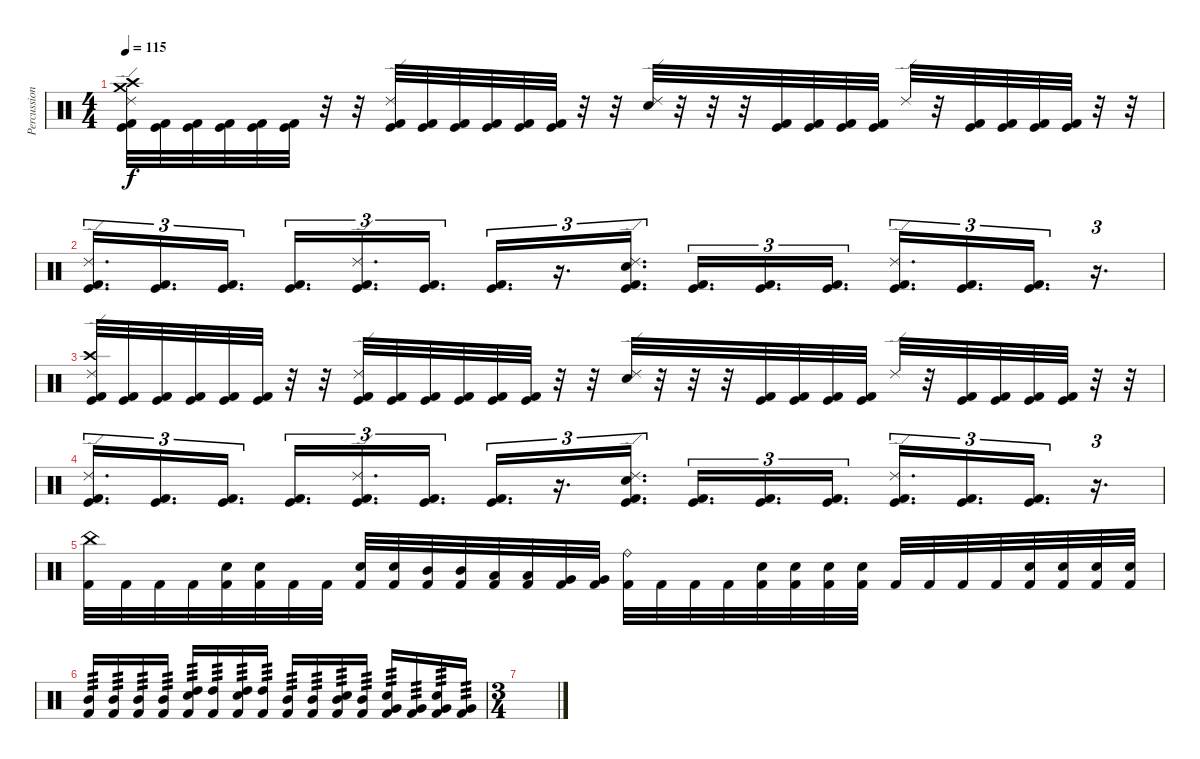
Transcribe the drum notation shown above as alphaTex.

\track ("Percussion" "Percussion") {instrument percussion}
\staff {score}
\articulation defaults
\ts (4 4)
\tempo 115
\clef neutral
\ks c
("Crash medium (hit)" "Ride (edge) 2" "Crash high (hit)" "Kick (hit)" "Kick (hit) 2").32{dy f} ("Kick (hit)" "Kick (hit) 2").32 ("Kick (hit)" "Kick (hit) 2").32 ("Kick (hit)" "Kick (hit) 2").32 ("Kick (hit)" "Kick (hit) 2").32 ("Kick (hit)" "Kick (hit) 2").32 r.32 r.32 ("Ride (edge) 2" "Kick (hit)" "Kick (hit) 2").32 ("Kick (hit)" "Kick (hit) 2").32 ("Kick (hit)" "Kick (hit) 2").32 ("Kick (hit)" "Kick (hit) 2").32 ("Kick (hit)" "Kick (hit) 2").32 ("Kick (hit)" "Kick (hit) 2").32 r.32 r.32 ("Ride (edge) 2" "Electric Snare (hit)").32 r.32 r.32 r.32 ("Kick (hit)" "Kick (hit) 2").32 ("Kick (hit)" "Kick (hit) 2").32 ("Kick (hit)" "Kick (hit) 2").32 ("Kick (hit)" "Kick (hit) 2").32 "Ride (edge) 2".32 r.32 ("Kick (hit)" "Kick (hit) 2").32 ("Kick (hit)" "Kick (hit) 2").32 ("Kick (hit)" "Kick (hit) 2").32 ("Kick (hit)" "Kick (hit) 2").32 r.32 r.32 |
("Ride (edge) 2" "Kick (hit)" "Kick (hit) 2").16{d tu (3 2)} ("Kick (hit)" "Kick (hit) 2").16{d tu (3 2)} ("Kick (hit)" "Kick (hit) 2").16{d tu (3 2)} ("Kick (hit)" "Kick (hit) 2").16{d tu (3 2)} ("Ride (edge) 2" "Kick (hit)" "Kick (hit) 2").16{d tu (3 2)} ("Kick (hit)" "Kick (hit) 2").16{d tu (3 2)} ("Kick (hit)" "Kick (hit) 2").16{d tu (3 2)} r.16{d tu (3 2)} ("Ride (edge) 2" "Electric Snare (hit)" "Kick (hit)" "Kick (hit) 2").16{d tu (3 2)} ("Kick (hit)" "Kick (hit) 2").16{d tu (3 2)} ("Kick (hit)" "Kick (hit) 2").16{d tu (3 2)} ("Kick (hit)" "Kick (hit) 2").16{d tu (3 2)} ("Ride (edge) 2" "Kick (hit)" "Kick (hit) 2").16{d tu (3 2)} ("Kick (hit)" "Kick (hit) 2").16{d tu (3 2)} ("Kick (hit)" "Kick (hit) 2").16{d tu (3 2)} r.16{d tu (3 2)} |
("Ride (edge) 2" "Crash high (hit)" "Kick (hit)" "Kick (hit) 2").32 ("Kick (hit)" "Kick (hit) 2").32 ("Kick (hit)" "Kick (hit) 2").32 ("Kick (hit)" "Kick (hit) 2").32 ("Kick (hit)" "Kick (hit) 2").32 ("Kick (hit)" "Kick (hit) 2").32 r.32 r.32 ("Ride (edge) 2" "Kick (hit)" "Kick (hit) 2").32 ("Kick (hit)" "Kick (hit) 2").32 ("Kick (hit)" "Kick (hit) 2").32 ("Kick (hit)" "Kick (hit) 2").32 ("Kick (hit)" "Kick (hit) 2").32 ("Kick (hit)" "Kick (hit) 2").32 r.32 r.32 ("Ride (edge) 2" "Electric Snare (hit)").32 r.32 r.32 r.32 ("Kick (hit)" "Kick (hit) 2").32 ("Kick (hit)" "Kick (hit) 2").32 ("Kick (hit)" "Kick (hit) 2").32 ("Kick (hit)" "Kick (hit) 2").32 "Ride (edge) 2".32 r.32 ("Kick (hit)" "Kick (hit) 2").32 ("Kick (hit)" "Kick (hit) 2").32 ("Kick (hit)" "Kick (hit) 2").32 ("Kick (hit)" "Kick (hit) 2").32 r.32 r.32 |
("Ride (edge) 2" "Kick (hit)" "Kick (hit) 2").16{d tu (3 2)} ("Kick (hit)" "Kick (hit) 2").16{d tu (3 2)} ("Kick (hit)" "Kick (hit) 2").16{d tu (3 2)} ("Kick (hit)" "Kick (hit) 2").16{d tu (3 2)} ("Ride (edge) 2" "Kick (hit)" "Kick (hit) 2").16{d tu (3 2)} ("Kick (hit)" "Kick (hit) 2").16{d tu (3 2)} ("Kick (hit)" "Kick (hit) 2").16{d tu (3 2)} r.16{d tu (3 2)} ("Ride (edge) 2" "Electric Snare (hit)" "Kick (hit)" "Kick (hit) 2").16{d tu (3 2)} ("Kick (hit)" "Kick (hit) 2").16{d tu (3 2)} ("Kick (hit)" "Kick (hit) 2").16{d tu (3 2)} ("Kick (hit)" "Kick (hit) 2").16{d tu (3 2)} ("Ride (edge) 2" "Kick (hit)" "Kick (hit) 2").16{d tu (3 2)} ("Kick (hit)" "Kick (hit) 2").16{d tu (3 2)} ("Kick (hit)" "Kick (hit) 2").16{d tu (3 2)} r.16{d tu (3 2)} |
("China (hit)" "Kick (hit) 2").32 "Kick (hit) 2".32 "Kick (hit) 2".32 "Kick (hit) 2".32 ("Electric Snare (hit)" "Kick (hit) 2").32 ("Electric Snare (hit)" "Kick (hit) 2").32 "Kick (hit) 2".32 "Kick (hit) 2".32 ("Electric Snare (hit)" "Kick (hit) 2").32 ("Electric Snare (hit)" "Kick (hit) 2").32 ("Mid Tom (hit)" "Kick (hit) 2").32 ("Mid Tom (hit)" "Kick (hit) 2").32 ("Low Tom (hit)" "Kick (hit) 2").32 ("Low Tom (hit)" "Kick (hit) 2").32 ("Very Low Tom (hit)" "Kick (hit) 2").32 ("Very Low Tom (hit)" "Kick (hit) 2").32 ("Ride (bell)" "Kick (hit) 2").32 "Kick (hit) 2".32 "Kick (hit) 2".32 "Kick (hit) 2".32 ("Electric Snare (hit)" "Kick (hit) 2").32 ("Electric Snare (hit)" "Kick (hit) 2").32 ("Electric Snare (hit)" "Kick (hit) 2").32 ("Electric Snare (hit)" "Kick (hit) 2").32 "Kick (hit) 2".32 "Kick (hit) 2".32 "Kick (hit) 2".32 "Kick (hit) 2".32 ("Electric Snare (hit)" "Kick (hit) 2").32 ("Electric Snare (hit)" "Kick (hit) 2").32 ("Electric Snare (hit)" "Kick (hit) 2").32 ("Electric Snare (hit)" "Kick (hit) 2").32 |
("Mid Tom (hit)" "Kick (hit) 2").16{tp 3} ("Mid Tom (hit)" "Kick (hit) 2").16{tp 3} ("Mid Tom (hit)" "Kick (hit) 2").16{tp 3} ("Mid Tom (hit)" "Kick (hit) 2").16{tp 3} ("High Tom (hit)" "Electric Snare (hit)" "Kick (hit) 2").16{tp 3} ("High Tom (hit)" "Kick (hit) 2").16{tp 3} ("High Tom (hit)" "Electric Snare (hit)" "Kick (hit) 2").16{tp 3} ("High Tom (hit)" "Kick (hit) 2").16{tp 3} ("Mid Tom (hit)" "Kick (hit) 2").16{tp 3} ("Mid Tom (hit)" "Kick (hit) 2").16{tp 3} ("Mid Tom (hit)" "Electric Snare (hit)" "Kick (hit) 2").16{tp 3} ("Mid Tom (hit)" "Kick (hit) 2").16{tp 3} ("Very Low Tom (hit)" "Electric Snare (hit)" "Kick (hit) 2").16{tp 3} ("Very Low Tom (hit)" "Kick (hit) 2").16{tp 3} ("Very Low Tom (hit)" "Electric Snare (hit)" "Kick (hit) 2").16{tp 3} ("Very Low Tom (hit)" "Kick (hit) 2").16{tp 3} |
\ts (3 4)
